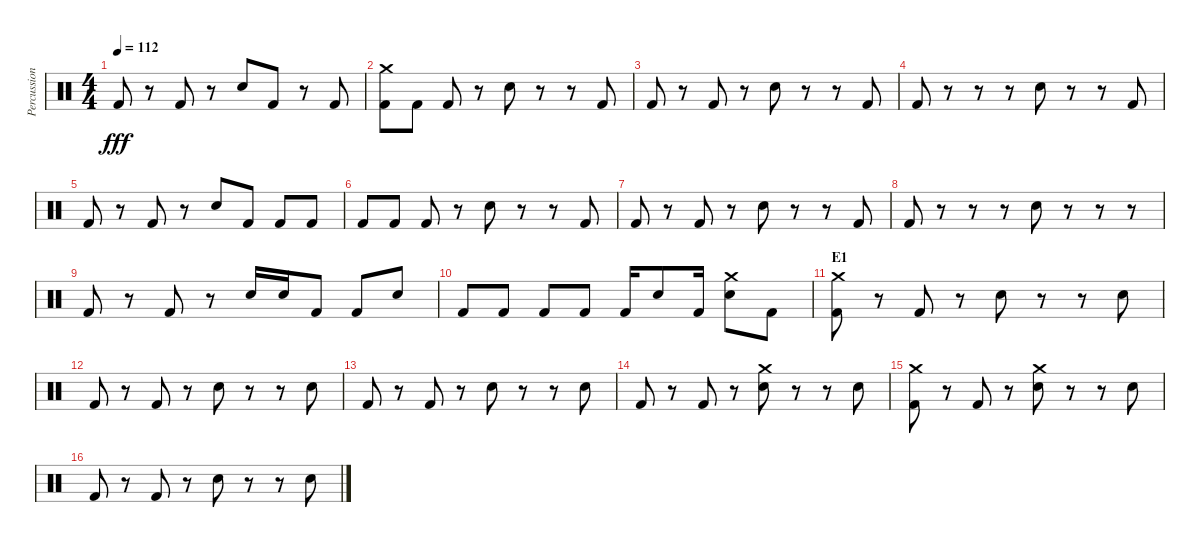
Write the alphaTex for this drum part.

\track ("Percussion" "Percussion") {instrument percussion}
\staff {score}
\articulation defaults
\ts (4 4)
\tempo 112
\clef neutral
\ks c "Kick (hit) 2".8{dy fff}
r.8 "Kick (hit) 2".8 r.8 "Electric Snare (hit)".8 "Kick (hit) 2".8 r.8 "Kick (hit) 2".8 |
("Kick (hit) 2" "Crash medium (hit)").8 "Kick (hit) 2".8 "Kick (hit) 2".8 r.8 "Electric Snare (hit)".8 r.8 r.8 "Kick (hit) 2".8 |
"Kick (hit) 2".8 r.8 "Kick (hit) 2".8 r.8 "Electric Snare (hit)".8 r.8 r.8 "Kick (hit) 2".8 |
"Kick (hit) 2".8 r.8 r.8 r.8 "Electric Snare (hit)".8 r.8 r.8 "Kick (hit) 2".8 |
"Kick (hit) 2".8 r.8 "Kick (hit) 2".8 r.8 "Electric Snare (hit)".8 "Kick (hit) 2".8 "Kick (hit) 2".8 "Kick (hit) 2".8 |
"Kick (hit) 2".8 "Kick (hit) 2".8 "Kick (hit) 2".8 r.8 "Electric Snare (hit)".8 r.8 r.8 "Kick (hit) 2".8 |
"Kick (hit) 2".8 r.8 "Kick (hit) 2".8 r.8 "Electric Snare (hit)".8 r.8 r.8 "Kick (hit) 2".8 |
"Kick (hit) 2".8 r.8 r.8 r.8 "Electric Snare (hit)".8 r.8 r.8 r.8 |
"Kick (hit) 2".8 r.8 "Kick (hit) 2".8 r.8 "Electric Snare (hit)".16 "Electric Snare (hit)".16 "Kick (hit) 2".8 "Kick (hit) 2".8 "Electric Snare (hit)".8 |
"Kick (hit) 2".8 "Kick (hit) 2".8 "Kick (hit) 2".8 "Kick (hit) 2".8 "Kick (hit) 2".16 "Electric Snare (hit)".8 "Kick (hit) 2".16 ("Electric Snare (hit)" "Crash medium (hit)").8 "Kick (hit) 2".8 |
\section ("" "E1")
("Kick (hit) 2" "Crash medium (hit)").8 r.8 "Kick (hit) 2".8 r.8 "Electric Snare (hit)".8 r.8 r.8 "Electric Snare (hit)".8 |
"Kick (hit) 2".8 r.8 "Kick (hit) 2".8 r.8 "Electric Snare (hit)".8 r.8 r.8 "Electric Snare (hit)".8 |
"Kick (hit) 2".8 r.8 "Kick (hit) 2".8 r.8 "Electric Snare (hit)".8 r.8 r.8 "Electric Snare (hit)".8 |
"Kick (hit) 2".8 r.8 "Kick (hit) 2".8 r.8 ("Electric Snare (hit)" "Crash medium (hit)").8 r.8 r.8 "Electric Snare (hit)".8 |
("Kick (hit) 2" "Crash medium (hit)").8 r.8 "Kick (hit) 2".8 r.8 ("Electric Snare (hit)" "Crash medium (hit)").8 r.8 r.8 "Electric Snare (hit)".8 |
"Kick (hit) 2".8 r.8 "Kick (hit) 2".8 r.8 "Electric Snare (hit)".8 r.8 r.8 "Electric Snare (hit)".8
